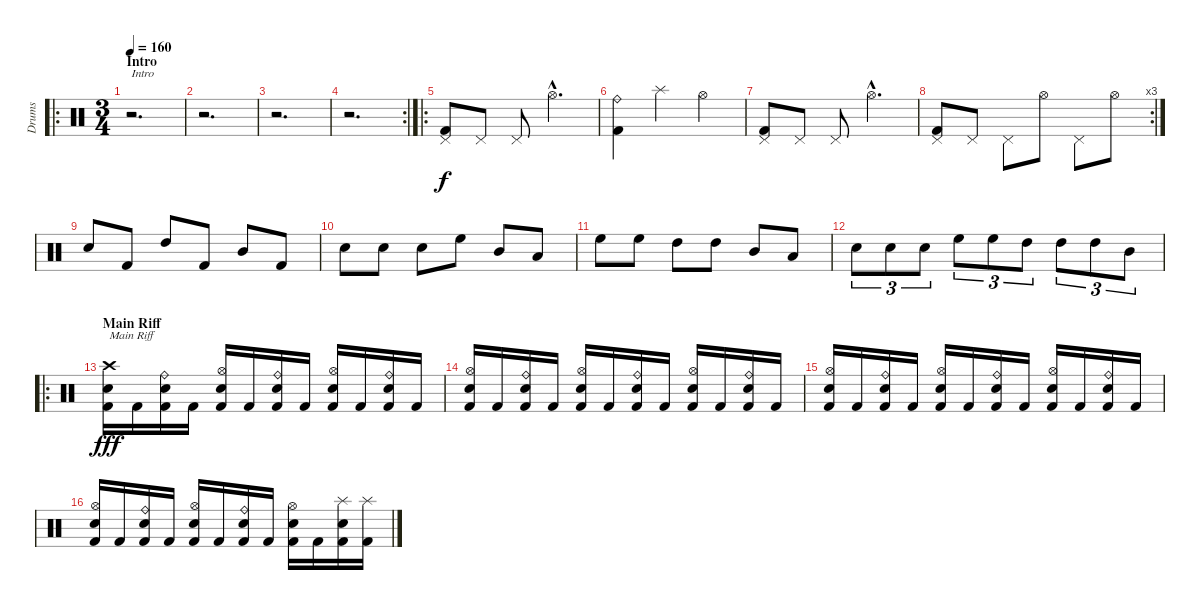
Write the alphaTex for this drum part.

\track ("Drums" "Drums") {instrument percussion}
\staff {score}
\articulation defaults
\ro
\ts (3 4)
\section ("" "Intro")
\tempo 160
\clef neutral
\ks c
r.2{d txt "Intro" dy f} |
r.2{d} |
r.2{d} |
\rc 2
r.2{d} |
\ro
("Pedal Hi-Hat (hit)" "Kick (hit) 2").8 "Pedal Hi-Hat (hit)".8 "Pedal Hi-Hat (hit)".8 "Hi-Hat (open)"{hac}.4{d} |
("Ride (bell)" "Kick (hit) 2").4 "Splash (hit)".4 "Hi-Hat (open)".4 |
("Pedal Hi-Hat (hit)" "Kick (hit) 2").8 "Pedal Hi-Hat (hit)".8 "Pedal Hi-Hat (hit)".8 "Hi-Hat (open)"{hac}.4{d} |
\rc 3
("Pedal Hi-Hat (hit)" "Kick (hit) 2").8 "Pedal Hi-Hat (hit)".8 "Pedal Hi-Hat (hit)".8 "Hi-Hat (open)".8 "Pedal Hi-Hat (hit)".8 "Hi-Hat (open)".8 |
"Electric Snare (hit)".8 "Kick (hit) 2".8 "High Tom (hit)".8 "Kick (hit) 2".8 "Mid Tom (hit)".8 "Kick (hit) 2".8 |
"Electric Snare (hit)".8 "Electric Snare (hit)".8 "Electric Snare (hit)".8 "High Floor Tom (hit)".8 "Mid Tom (hit)".8 "Low Tom (hit)".8 |
"High Floor Tom (hit)".8 "High Floor Tom (hit)".8 "High Tom (hit)".8 "High Tom (hit)".8 "Mid Tom (hit)".8 "Low Tom (hit)".8 |
"Electric Snare (hit)".8{tu (3 2)} "Electric Snare (hit)".8{tu (3 2)} "Electric Snare (hit)".8{tu (3 2)} "High Floor Tom (hit)".8{tu (3 2)} "High Floor Tom (hit)".8{tu (3 2)} "High Tom (hit)".8{tu (3 2)} "High Tom (hit)".8{tu (3 2)} "High Tom (hit)".8{tu (3 2)} "Mid Tom (hit)".8{tu (3 2)} |
\ro
\section ("" "Main Riff")
("Crash high (hit)" "Electric Snare (hit)" "Kick (hit) 2").16{txt "Main Riff" dy fff} "Kick (hit) 2".16 ("Ride (bell)" "Electric Snare (hit)" "Kick (hit) 2").16 "Kick (hit) 2".16 ("Hi-Hat (open)" "Electric Snare (hit)" "Kick (hit) 2").16 "Kick (hit) 2".16 ("Ride (bell)" "Electric Snare (hit)" "Kick (hit) 2").16 "Kick (hit) 2".16 ("Hi-Hat (open)" "Electric Snare (hit)" "Kick (hit) 2").16 "Kick (hit) 2".16 ("Ride (bell)" "Electric Snare (hit)" "Kick (hit) 2").16 "Kick (hit) 2".16 |
("Hi-Hat (open)" "Electric Snare (hit)" "Kick (hit) 2").16 "Kick (hit) 2".16 ("Ride (bell)" "Electric Snare (hit)" "Kick (hit) 2").16 "Kick (hit) 2".16 ("Hi-Hat (open)" "Electric Snare (hit)" "Kick (hit) 2").16 "Kick (hit) 2".16 ("Ride (bell)" "Electric Snare (hit)" "Kick (hit) 2").16 "Kick (hit) 2".16 ("Hi-Hat (open)" "Electric Snare (hit)" "Kick (hit) 2").16 "Kick (hit) 2".16 ("Ride (bell)" "Electric Snare (hit)" "Kick (hit) 2").16 "Kick (hit) 2".16 |
("Hi-Hat (open)" "Electric Snare (hit)" "Kick (hit) 2").16 "Kick (hit) 2".16 ("Ride (bell)" "Electric Snare (hit)" "Kick (hit) 2").16 "Kick (hit) 2".16 ("Hi-Hat (open)" "Electric Snare (hit)" "Kick (hit) 2").16 "Kick (hit) 2".16 ("Ride (bell)" "Electric Snare (hit)" "Kick (hit) 2").16 "Kick (hit) 2".16 ("Hi-Hat (open)" "Electric Snare (hit)" "Kick (hit) 2").16 "Kick (hit) 2".16 ("Ride (bell)" "Electric Snare (hit)" "Kick (hit) 2").16 "Kick (hit) 2".16 |
("Hi-Hat (open)" "Electric Snare (hit)" "Kick (hit) 2").16 "Kick (hit) 2".16 ("Ride (bell)" "Electric Snare (hit)" "Kick (hit) 2").16 "Kick (hit) 2".16 ("Hi-Hat (open)" "Electric Snare (hit)" "Kick (hit) 2").16 "Kick (hit) 2".16 ("Ride (bell)" "Electric Snare (hit)" "Kick (hit) 2").16 "Kick (hit) 2".16 ("Hi-Hat (open)" "Electric Snare (hit)" "Kick (hit) 2").16 "Kick (hit) 2".16 ("Splash (hit)" "Electric Snare (hit)" "Kick (hit) 2").16 ("Splash (hit)" "Kick (hit) 2").16
